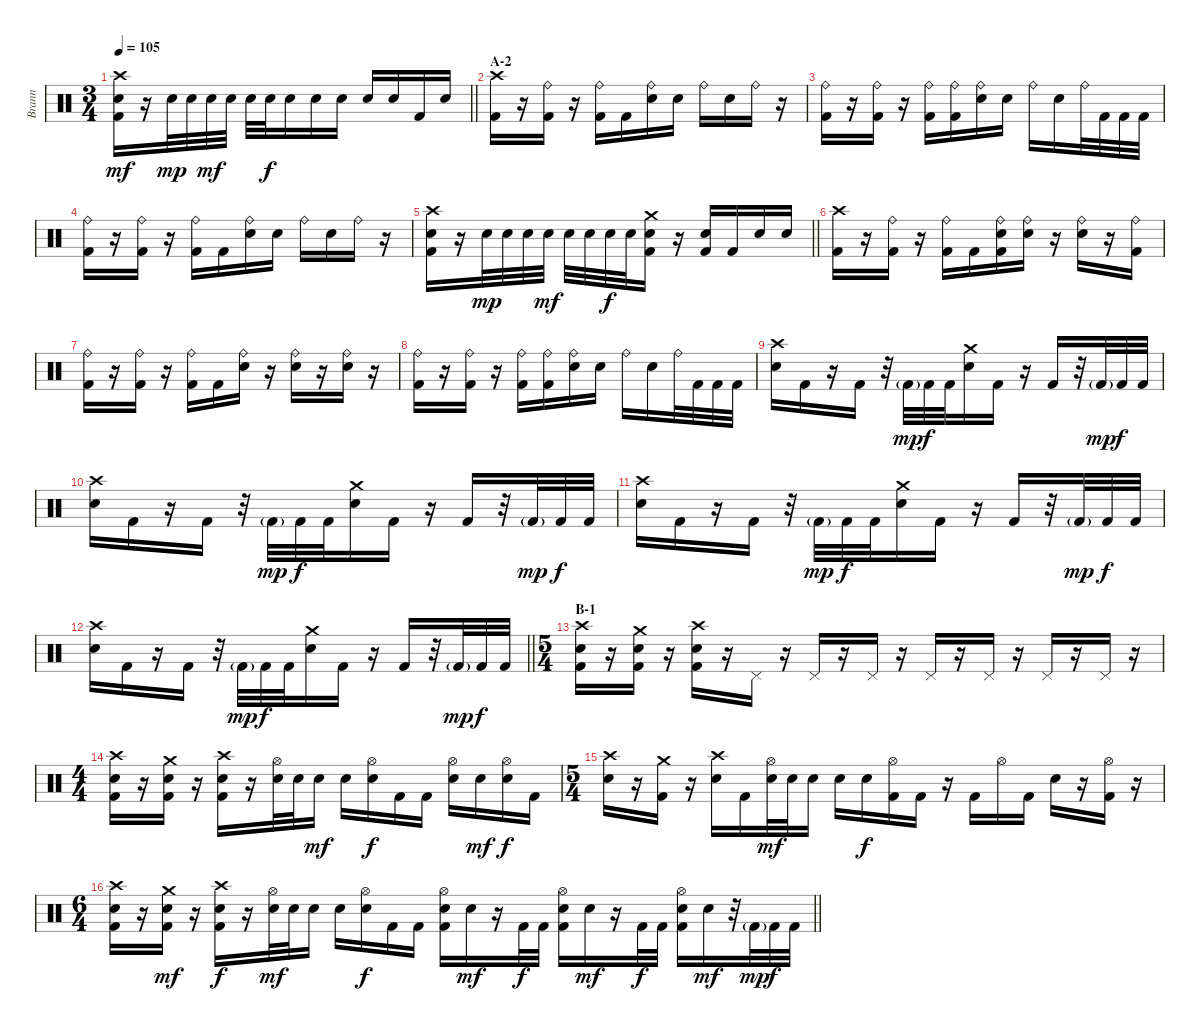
\track ("Brann" "Brann") {instrument percussion}
\staff {score}
\articulation defaults
\ts (3 4)
\tempo 105
\clef neutral
\barLineRight lightlight
\ks c
("Crash high (hit)" "Snare (hit) 2" "Kick (hit) 2").16{dy mf} r.16 "Snare (hit) 2".32{dy mp} "Snare (hit) 2".32 "Snare (hit) 2".32{dy mf} "Snare (hit) 2".32 "Snare (hit) 2".32 "Snare (hit) 2".32{dy f} "Snare (hit) 2".16 "Snare (hit) 2".16 "Snare (hit) 2".16 "Snare (hit) 2".16 "Snare (hit) 2".16 "Kick (hit) 2".16 "Snare (hit) 2".16 |
\section ("" "A-2")
("Crash high (hit)" "Kick (hit) 2").16 r.16 ("Ride (bell)" "Kick (hit) 2").16 r.16 ("Ride (bell)" "Kick (hit) 2").16 "Kick (hit) 2".16 ("Ride (bell)" "Snare (hit) 2").16 "Snare (hit) 2".16 "Ride (bell)".16 "Snare (hit) 2".16 "Ride (bell)".16 r.16 |
("Ride (bell)" "Kick (hit) 2").16 r.16 ("Ride (bell)" "Kick (hit) 2").16 r.16 ("Ride (bell)" "Kick (hit) 2").16 ("Ride (bell)" "Kick (hit) 2").16 ("Ride (bell)" "Snare (hit) 2").16 "Snare (hit) 2".16 "Ride (bell)".16 "Snare (hit) 2".16 "Ride (bell)".32 "Kick (hit) 2".32 "Kick (hit) 2".32 "Kick (hit) 2".32 |
("Ride (bell)" "Kick (hit) 2").16 r.16 ("Ride (bell)" "Kick (hit) 2").16 r.16 ("Ride (bell)" "Kick (hit) 2").16 "Kick (hit) 2".16 ("Ride (bell)" "Snare (hit) 2").16 "Snare (hit) 2".16 "Ride (bell)".16 "Snare (hit) 2".16 "Ride (bell)".16 r.16 |
\barLineRight lightlight
("Crash high (hit)" "Snare (hit) 2" "Kick (hit) 2").16 r.16 "Snare (hit) 2".32{dy mp} "Snare (hit) 2".32 "Snare (hit) 2".32 "Snare (hit) 2".32{dy mf} "Snare (hit) 2".32 "Snare (hit) 2".32 "Snare (hit) 2".32{dy f} "Snare (hit) 2".32 ("Crash medium (hit)" "Snare (hit) 2" "Kick (hit) 2").16 r.16 ("Snare (hit) 2" "Kick (hit) 2").16 "Kick (hit) 2".16 "Snare (hit) 2".16 "Snare (hit) 2".16 |
("Crash high (hit)" "Kick (hit) 2").16 r.16 ("Ride (bell)" "Kick (hit) 2").16 r.16 ("Ride (bell)" "Kick (hit) 2").16 "Kick (hit) 2".16 ("Ride (bell)" "Snare (hit) 2" "Kick (hit) 2").16 ("Ride (bell)" "Snare (hit) 2").16 r.16 ("Ride (bell)" "Snare (hit) 2").16 r.16 ("Ride (bell)" "Kick (hit) 2").16 |
("Ride (bell)" "Kick (hit) 2").16 r.16 ("Ride (bell)" "Kick (hit) 2").16 r.16 ("Ride (bell)" "Kick (hit) 2").16 "Kick (hit) 2".16 ("Ride (bell)" "Snare (hit) 2").16 r.16 ("Ride (bell)" "Snare (hit) 2").16 r.16 ("Ride (bell)" "Snare (hit) 2").16 r.16 |
("Ride (bell)" "Kick (hit) 2").16 r.16 ("Ride (bell)" "Kick (hit) 2").16 r.16 ("Ride (bell)" "Kick (hit) 2").16 ("Ride (bell)" "Kick (hit) 2").16 ("Ride (bell)" "Snare (hit) 2").16 "Snare (hit) 2".16 "Ride (bell)".16 "Snare (hit) 2".16 "Ride (bell)".32 "Kick (hit) 2".32 "Kick (hit) 2".32 "Kick (hit) 2".32 |
("Crash high (hit)" "Snare (hit) 2").16 "Kick (hit) 2".16 r.16 "Kick (hit) 2".16 r.32 "Kick (hit) 2"{g}.32{dy mp} "Kick (hit) 2".32{dy f} "Kick (hit) 2".32 ("Crash medium (hit)" "Snare (hit) 2").16 "Kick (hit) 2".16 r.16 "Kick (hit) 2".16 r.32 "Kick (hit) 2"{g}.32{dy mp} "Kick (hit) 2".32{dy f} "Kick (hit) 2".32 |
("Crash high (hit)" "Snare (hit) 2").16 "Kick (hit) 2".16 r.16 "Kick (hit) 2".16 r.32 "Kick (hit) 2"{g}.32{dy mp} "Kick (hit) 2".32{dy f} "Kick (hit) 2".32 ("Crash medium (hit)" "Snare (hit) 2").16 "Kick (hit) 2".16 r.16 "Kick (hit) 2".16 r.32 "Kick (hit) 2"{g}.32{dy mp} "Kick (hit) 2".32{dy f} "Kick (hit) 2".32 |
("Crash high (hit)" "Snare (hit) 2").16 "Kick (hit) 2".16 r.16 "Kick (hit) 2".16 r.32 "Kick (hit) 2"{g}.32{dy mp} "Kick (hit) 2".32{dy f} "Kick (hit) 2".32 ("Crash medium (hit)" "Snare (hit) 2").16 "Kick (hit) 2".16 r.16 "Kick (hit) 2".16 r.32 "Kick (hit) 2"{g}.32{dy mp} "Kick (hit) 2".32{dy f} "Kick (hit) 2".32 |
\barLineRight lightlight
("Crash high (hit)" "Snare (hit) 2").16 "Kick (hit) 2".16 r.16 "Kick (hit) 2".16 r.32 "Kick (hit) 2"{g}.32{dy mp} "Kick (hit) 2".32{dy f} "Kick (hit) 2".32 ("Crash medium (hit)" "Snare (hit) 2").16 "Kick (hit) 2".16 r.16 "Kick (hit) 2".16 r.32 "Kick (hit) 2"{g}.32{dy mp} "Kick (hit) 2".32{dy f} "Kick (hit) 2".32 |
\ts (5 4)
\section ("" "B-1")
("Crash high (hit)" "Snare (hit) 2" "Kick (hit) 2").16 r.16 ("Crash medium (hit)" "Snare (hit) 2" "Kick (hit) 2").16 r.16 ("Crash high (hit)" "Snare (hit) 2" "Kick (hit) 2").16 r.16 "Pedal Hi-Hat (hit)".16 r.16 "Pedal Hi-Hat (hit)".16 r.16 "Pedal Hi-Hat (hit)".16 r.16 "Pedal Hi-Hat (hit)".16 r.16 "Pedal Hi-Hat (hit)".16 r.16 "Pedal Hi-Hat (hit)".16 r.16 "Pedal Hi-Hat (hit)".16 r.16 |
\ts (4 4)
("Crash high (hit)" "Snare (hit) 2" "Kick (hit) 2").16 r.16 ("Crash medium (hit)" "Snare (hit) 2" "Kick (hit) 2").16 r.16 ("Crash high (hit)" "Snare (hit) 2" "Kick (hit) 2").16 r.16 ("Hi-Hat (open)" "Snare (hit) 2").32 "Snare (hit) 2".32 "Snare (hit) 2".16{dy mf} "Snare (hit) 2".16 ("Hi-Hat (open)" "Snare (hit) 2").16{dy f} "Kick (hit) 2".16 "Kick (hit) 2".16 ("Hi-Hat (open)" "Snare (hit) 2").16 "Snare (hit) 2".16{dy mf} ("Hi-Hat (open)" "Snare (hit) 2").16{dy f} "Kick (hit) 2".16 |
\ts (5 4)
("Crash high (hit)" "Snare (hit) 2").16 r.16 ("Crash medium (hit)" "Kick (hit) 2").16 r.16 ("Crash high (hit)" "Snare (hit) 2").16 "Kick (hit) 2".16 ("Hi-Hat (open)" "Snare (hit) 2").32{dy mf} "Snare (hit) 2".32 "Snare (hit) 2".16 "Snare (hit) 2".16 "Snare (hit) 2".16{dy f} ("Hi-Hat (open)" "Kick (hit) 2").16 "Kick (hit) 2".16 r.16 "Kick (hit) 2".16 "Hi-Hat (open)".16 "Kick (hit) 2".16 "Snare (hit) 2".16 r.16 ("Hi-Hat (open)" "Kick (hit) 2").16 r.16 |
\ts (6 4)
\barLineRight lightlight
("Crash high (hit)" "Snare (hit) 2" "Kick (hit) 2").16 r.16 ("Crash medium (hit)" "Snare (hit) 2" "Kick (hit) 2").16{dy mf} r.16 ("Crash high (hit)" "Snare (hit) 2" "Kick (hit) 2").16{dy f} r.16 ("Hi-Hat (open)" "Snare (hit) 2").32{dy mf} "Snare (hit) 2".32 "Snare (hit) 2".16 "Snare (hit) 2".16 ("Hi-Hat (open)" "Snare (hit) 2").16{dy f} "Kick (hit) 2".16 "Kick (hit) 2".16 ("Hi-Hat (open)" "Snare (hit) 2" "Kick (hit) 2").16 "Snare (hit) 2".16{dy mf} r.16 "Kick (hit) 2".32{dy f} "Kick (hit) 2".32 ("Hi-Hat (open)" "Snare (hit) 2" "Kick (hit) 2").16 "Snare (hit) 2".16{dy mf} r.16 "Kick (hit) 2".32{dy f} "Kick (hit) 2".32 ("Hi-Hat (open)" "Snare (hit) 2" "Kick (hit) 2").16 "Snare (hit) 2".16{dy mf} r.32 "Kick (hit) 2"{g}.32{dy mp} "Kick (hit) 2".32{dy f} "Kick (hit) 2".32
